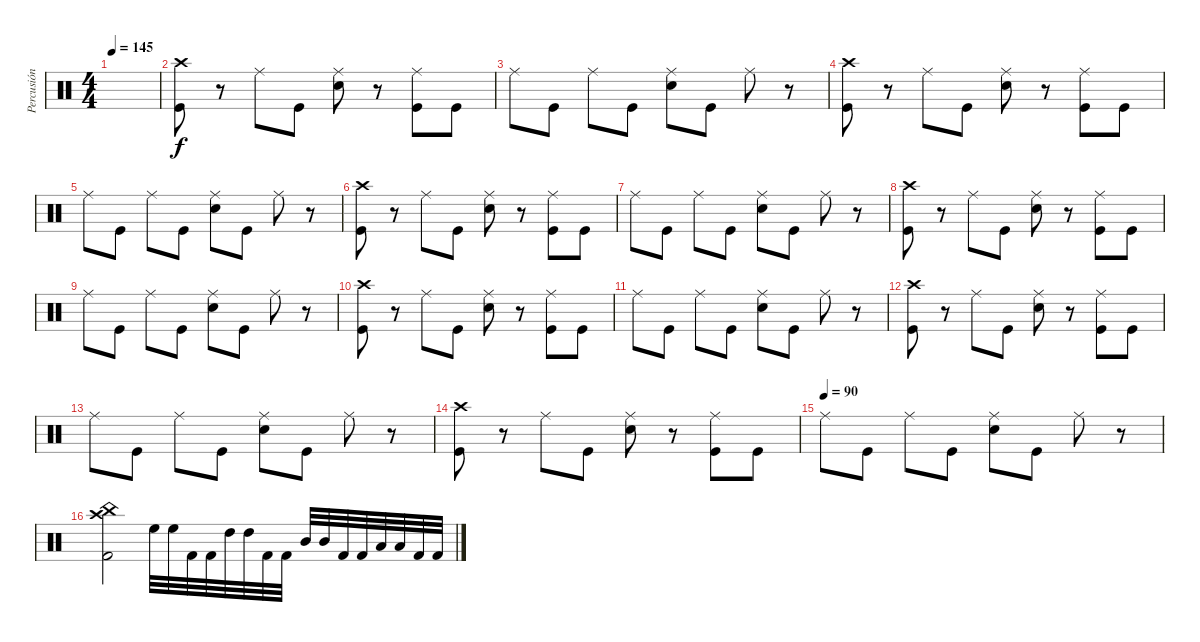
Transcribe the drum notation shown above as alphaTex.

\track ("Percusión" "Percusión") {instrument percussion}
\staff {score}
\articulation defaults
\ts (4 4)
\tempo 145
\clef neutral
\ks c
|
("Crash high (hit)" "Kick (hit)").8 r.8 "Ride (middle)".8 "Kick (hit)".8 ("Ride (middle)" "Snare (hit) 2").8 r.8 ("Ride (middle)" "Kick (hit)").8 "Kick (hit)".8 |
"Ride (middle)".8 "Kick (hit)".8 "Ride (middle)".8 "Kick (hit)".8 ("Ride (middle)" "Snare (hit) 2").8 "Kick (hit)".8 "Ride (middle)".8 r.8 |
("Crash high (hit)" "Kick (hit)").8 r.8 "Ride (middle)".8 "Kick (hit)".8 ("Ride (middle)" "Snare (hit) 2").8 r.8 ("Ride (middle)" "Kick (hit)").8 "Kick (hit)".8 |
"Ride (middle)".8 "Kick (hit)".8 "Ride (middle)".8 "Kick (hit)".8 ("Ride (middle)" "Snare (hit) 2").8 "Kick (hit)".8 "Ride (middle)".8 r.8 |
("Crash high (hit)" "Kick (hit)").8 r.8 "Ride (middle)".8 "Kick (hit)".8 ("Ride (middle)" "Snare (hit) 2").8 r.8 ("Ride (middle)" "Kick (hit)").8 "Kick (hit)".8 |
"Ride (middle)".8 "Kick (hit)".8 "Ride (middle)".8 "Kick (hit)".8 ("Ride (middle)" "Snare (hit) 2").8 "Kick (hit)".8 "Ride (middle)".8 r.8 |
("Crash high (hit)" "Kick (hit)").8 r.8 "Ride (middle)".8 "Kick (hit)".8 ("Ride (middle)" "Snare (hit) 2").8 r.8 ("Ride (middle)" "Kick (hit)").8 "Kick (hit)".8 |
"Ride (middle)".8 "Kick (hit)".8 "Ride (middle)".8 "Kick (hit)".8 ("Ride (middle)" "Snare (hit) 2").8 "Kick (hit)".8 "Ride (middle)".8 r.8 |
("Crash high (hit)" "Kick (hit)").8 r.8 "Ride (middle)".8 "Kick (hit)".8 ("Ride (middle)" "Snare (hit) 2").8 r.8 ("Ride (middle)" "Kick (hit)").8 "Kick (hit)".8 |
"Ride (middle)".8 "Kick (hit)".8 "Ride (middle)".8 "Kick (hit)".8 ("Ride (middle)" "Snare (hit) 2").8 "Kick (hit)".8 "Ride (middle)".8 r.8 |
("Crash high (hit)" "Kick (hit)").8 r.8 "Ride (middle)".8 "Kick (hit)".8 ("Ride (middle)" "Snare (hit) 2").8 r.8 ("Ride (middle)" "Kick (hit)").8 "Kick (hit)".8 |
"Ride (middle)".8 "Kick (hit)".8 "Ride (middle)".8 "Kick (hit)".8 ("Ride (middle)" "Snare (hit) 2").8 "Kick (hit)".8 "Ride (middle)".8 r.8 |
("Crash high (hit)" "Kick (hit)").8 r.8 "Ride (middle)".8 "Kick (hit)".8 ("Ride (middle)" "Snare (hit) 2").8 r.8 ("Ride (middle)" "Kick (hit)").8 "Kick (hit)".8 |
\tempo (90)
"Ride (middle)".8 "Kick (hit)".8 "Ride (middle)".8 "Kick (hit)".8 ("Ride (middle)" "Snare (hit) 2").8 "Kick (hit)".8 "Ride (middle)".8 r.8 |
("Crash high (hit)" "China (hit)" "Kick (hit) 2").2 "High Floor Tom (hit)".32 "High Floor Tom (hit)".32 "Kick (hit) 2".32 "Kick (hit) 2".32 "High Tom (hit)".32 "High Tom (hit)".32 "Kick (hit) 2".32 "Kick (hit) 2".32 "Mid Tom (hit)".32 "Mid Tom (hit)".32 "Kick (hit) 2".32 "Kick (hit) 2".32 "Low Tom (hit)".32 "Low Tom (hit)".32 "Kick (hit) 2".32 "Kick (hit) 2".32
